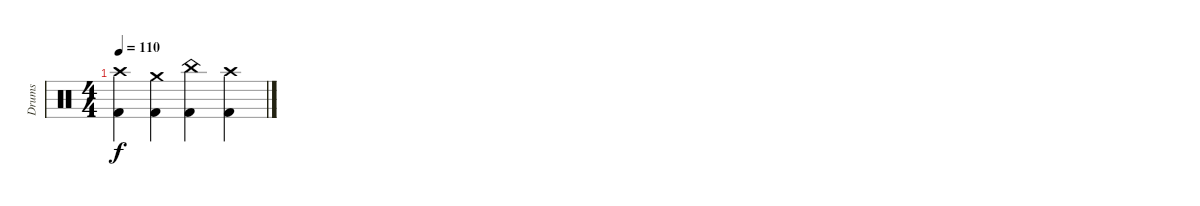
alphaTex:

\track ("Drums" "Drums") {instrument percussion}
\staff {score}
\articulation defaults
\ts (4 4)
\tempo 110
\clef neutral
\ks c
("Crash high (hit)" "Kick (hit) 2").4{dy f} ("Crash medium (hit)" "Kick (hit) 2").4 ("China (hit)" "Kick (hit) 2").4 ("Crash high (hit)" "Kick (hit) 2").4
